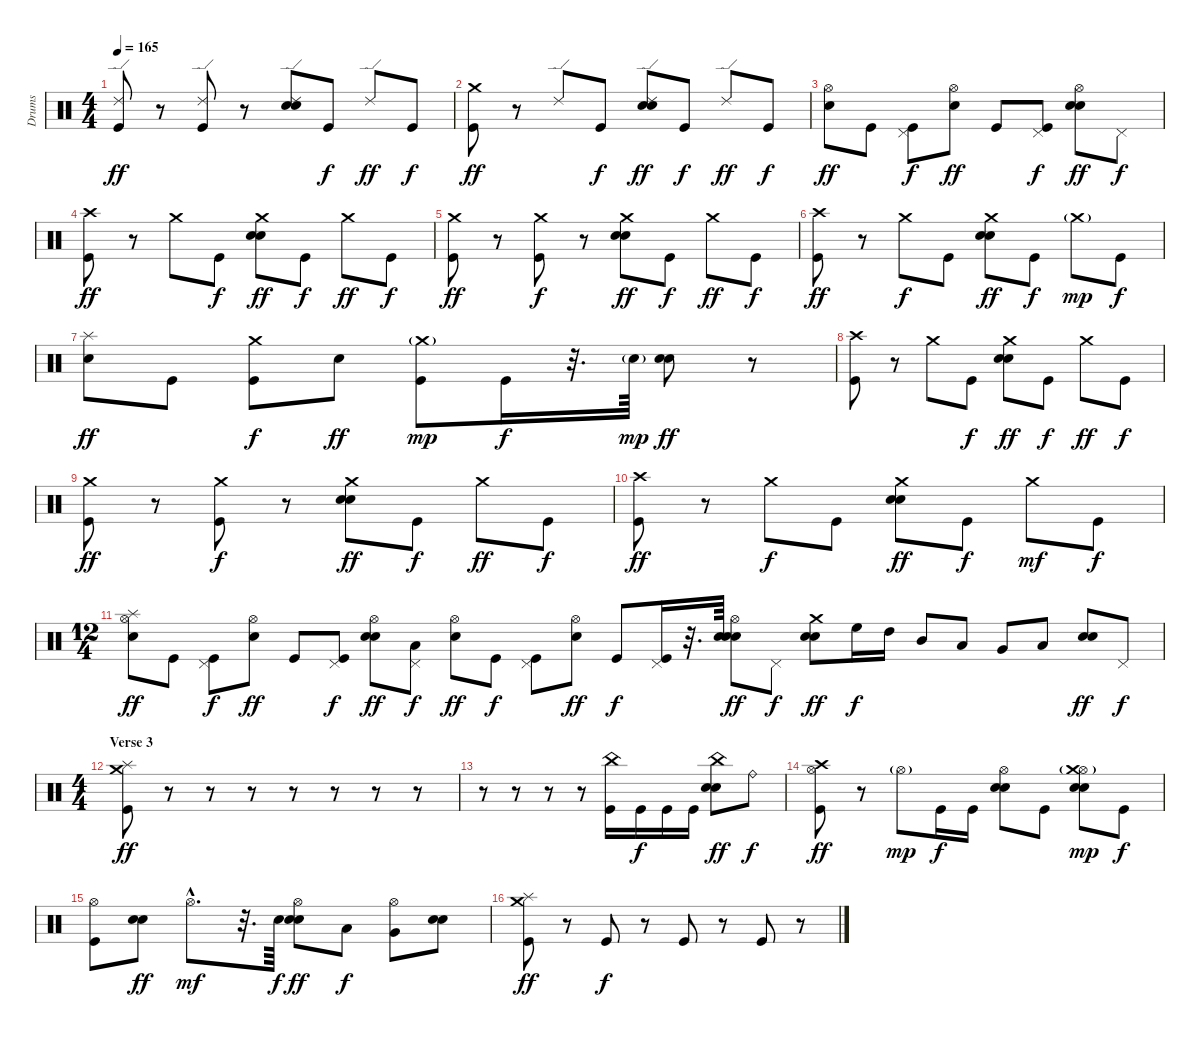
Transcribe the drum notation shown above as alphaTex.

\track ("Drums" "Drums") {instrument percussion}
\staff {score}
\articulation defaults
\ts (4 4)
\tempo 165
\clef neutral
\ks c
("Kick (hit)" "Ride (edge) 2").8{dy ff} r.8 ("Kick (hit)" "Ride (edge) 2").8 r.8 ("Electric Snare (hit)" "Electric Snare (hit)" "Ride (edge) 2").8 "Kick (hit)".8{dy f} "Ride (edge) 2".8{dy ff} "Kick (hit)".8{dy f} |
("Kick (hit)" "Crash medium (hit)").8{dy ff} r.8 "Ride (edge) 2".8 "Kick (hit)".8{dy f} ("Electric Snare (hit)" "Electric Snare (hit)" "Ride (edge) 2").8{dy ff} "Kick (hit)".8{dy f} "Ride (edge) 2".8{dy ff} "Kick (hit)".8{dy f} |
("Electric Snare (hit)" "Hi-Hat (open)").8{dy ff} "Kick (hit)".8 ("Kick (hit)" "Pedal Hi-Hat (hit)").8{dy f} ("Electric Snare (hit)" "Hi-Hat (open)").8{dy ff} "Kick (hit)".8 ("Kick (hit)" "Pedal Hi-Hat (hit)").8{dy f} ("Electric Snare (hit)" "Electric Snare (hit)" "Hi-Hat (open)").8{dy ff} "Pedal Hi-Hat (hit)".8{dy f} |
("Kick (hit)" "Crash high (hit)").8{dy ff} r.8 "Crash medium (hit)".8 "Kick (hit)".8{dy f} ("Electric Snare (hit)" "Electric Snare (hit)" "Crash medium (hit)").8{dy ff} "Kick (hit)".8{dy f} "Crash medium (hit)".8{dy ff} "Kick (hit)".8{dy f} |
("Kick (hit)" "Crash medium (hit)").8{dy ff} r.8 ("Kick (hit)" "Crash medium (hit)").8{dy f} r.8 ("Electric Snare (hit)" "Electric Snare (hit)" "Crash medium (hit)").8{dy ff} "Kick (hit)".8{dy f} "Crash medium (hit)".8{dy ff} "Kick (hit)".8{dy f} |
("Kick (hit)" "Crash high (hit)").8{dy ff} r.8 "Crash medium (hit)".8{dy f} "Kick (hit)".8 ("Electric Snare (hit)" "Electric Snare (hit)" "Crash medium (hit)").8{dy ff} "Kick (hit)".8{dy f} "Crash medium (hit)"{g}.8{dy mp} "Kick (hit)".8{dy f} |
("Electric Snare (hit)" "Splash (hit)").8{dy ff} "Kick (hit)".8 ("Kick (hit)" "Crash medium (hit)").8{dy f} "Electric Snare (hit)".8{dy ff} ("Kick (hit)" "Crash medium (hit)"{g}).8{dy mp} "Kick (hit)".16{dy f} r.32{d} "Electric Snare (hit)"{g}.64{dy mp} ("Electric Snare (hit)" "Electric Snare (hit)").8{dy ff} r.8 |
("Kick (hit)" "Crash high (hit)").8 r.8 "Crash medium (hit)".8 "Kick (hit)".8{dy f} ("Electric Snare (hit)" "Electric Snare (hit)" "Crash medium (hit)").8{dy ff} "Kick (hit)".8{dy f} "Crash medium (hit)".8{dy ff} "Kick (hit)".8{dy f} |
("Kick (hit)" "Crash medium (hit)").8{dy ff} r.8 ("Kick (hit)" "Crash medium (hit)").8{dy f} r.8 ("Electric Snare (hit)" "Electric Snare (hit)" "Crash medium (hit)").8{dy ff} "Kick (hit)".8{dy f} "Crash medium (hit)".8{dy ff} "Kick (hit)".8{dy f} |
("Kick (hit)" "Crash high (hit)").8{dy ff} r.8 "Crash medium (hit)".8{dy f} "Kick (hit)".8 ("Electric Snare (hit)" "Electric Snare (hit)" "Crash medium (hit)").8{dy ff} "Kick (hit)".8{dy f} "Crash medium (hit)".8{dy mf} "Kick (hit)".8{dy f} |
\ts (12 4)
("Electric Snare (hit)" "Hi-Hat (open)" "Splash (hit)").8{dy ff} "Kick (hit)".8 ("Kick (hit)" "Pedal Hi-Hat (hit)").8{dy f} ("Electric Snare (hit)" "Hi-Hat (open)").8{dy ff} "Kick (hit)".8 ("Kick (hit)" "Pedal Hi-Hat (hit)").8{dy f} ("Electric Snare (hit)" "Electric Snare (hit)" "Hi-Hat (open)").8{dy ff} ("Low Floor Tom (hit)" "Pedal Hi-Hat (hit)").8{dy f} ("Electric Snare (hit)" "Hi-Hat (open)").8{dy ff} "Kick (hit)".8{dy f} ("Kick (hit)" "Pedal Hi-Hat (hit)").8 ("Electric Snare (hit)" "Hi-Hat (open)").8{dy ff} "Kick (hit)".8{dy f} ("Kick (hit)" "Pedal Hi-Hat (hit)").16 r.32{d} "Electric Snare (hit)".64 ("Electric Snare (hit)" "Electric Snare (hit)" "Hi-Hat (open)").8{dy ff} "Pedal Hi-Hat (hit)".8{dy f} ("Electric Snare (hit)" "Electric Snare (hit)" "Crash medium (hit)").8{dy ff} "High Floor Tom (hit)".16{dy f} "High Tom (hit)".16 "Mid Tom (hit)".8 "Low Tom (hit)".8 "Very Low Tom (hit)".8 "Low Floor Tom (hit)".8 ("Electric Snare (hit)" "Electric Snare (hit)").8{dy ff} "Pedal Hi-Hat (hit)".8{dy f} |
\ts (4 4)
\section ("" "Verse 3")
("Kick (hit)" "Splash (hit)" "Crash medium (hit)").8{dy ff} r.8 r.8 r.8 r.8 r.8 r.8 r.8 |
r.8 r.8 r.8 r.8 ("Kick (hit)" "China (hit)").16 "Kick (hit)".16{dy f} "Kick (hit)".16 "Kick (hit)".16 ("Electric Snare (hit)" "Electric Snare (hit)" "China (hit)").8{dy ff} "Ride (bell)".8{dy f} |
("Kick (hit)" "Hi-Hat (open)" "Crash high (hit)").8{dy ff} r.8 "Hi-Hat (open)"{g}.8{dy mp} "Kick (hit)".16{dy f} "Kick (hit)".16 ("Electric Snare (hit)" "Electric Snare (hit)" "Hi-Hat (open)").8 "Kick (hit)".8 ("Electric Snare (hit)" "Electric Snare (hit)" "Hi-Hat (open)"{g} "Crash medium (hit)").8{dy mp} "Kick (hit)".8{dy f} |
("Kick (hit)" "Hi-Hat (open)").8 ("Electric Snare (hit)" "Electric Snare (hit)").8{dy ff} "Hi-Hat (open)"{hac}.8{d dy mf} r.32{d} "Electric Snare (hit)".64{dy f} ("Electric Snare (hit)" "Electric Snare (hit)" "Hi-Hat (open)").8{dy ff} "Low Tom (hit)".8{dy f} ("Very Low Tom (hit)" "Hi-Hat (open)").8 ("Electric Snare (hit)" "Electric Snare (hit)").8 |
("Kick (hit)" "Splash (hit)" "Crash medium (hit)").8{dy ff} r.8 "Kick (hit)".8{dy f} r.8 "Kick (hit)".8 r.8 "Kick (hit)".8 r.8
